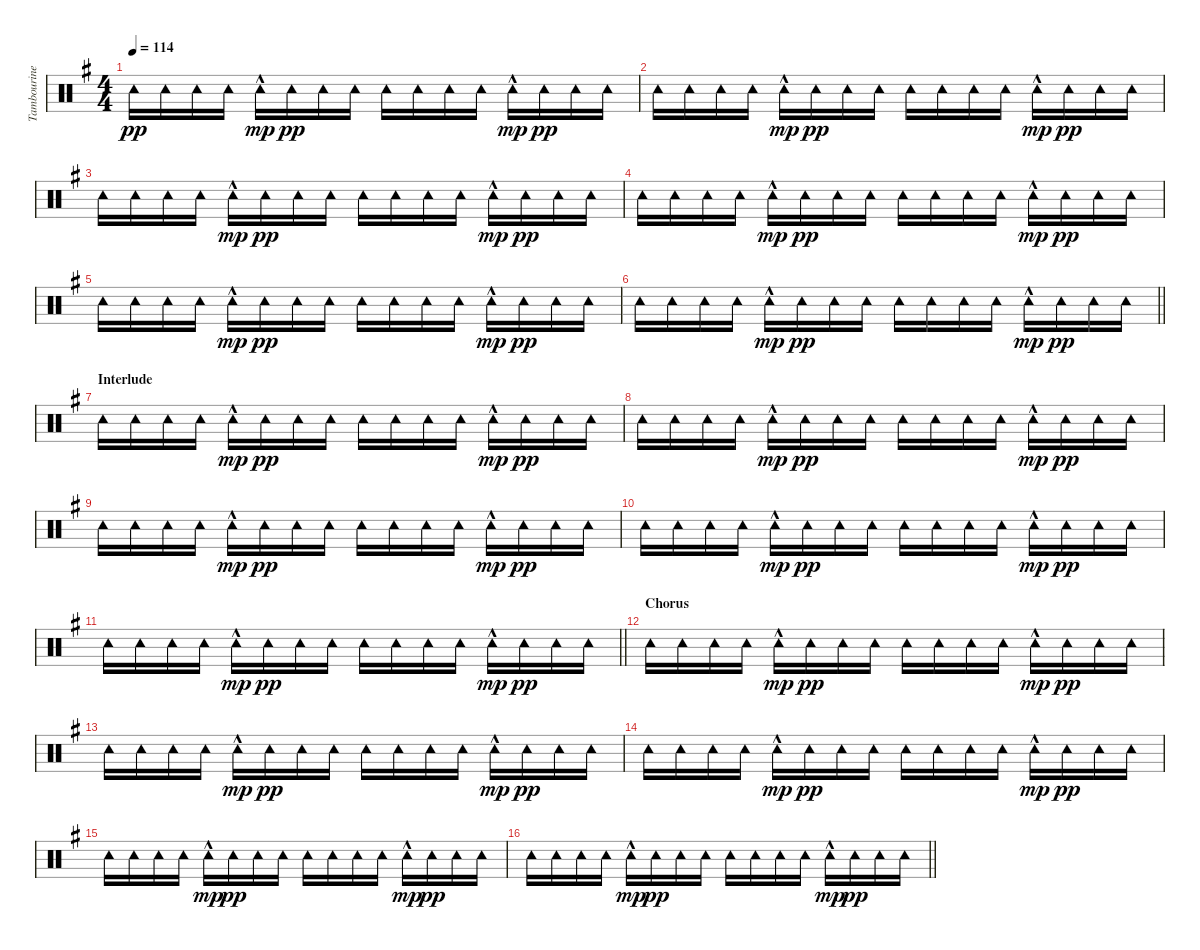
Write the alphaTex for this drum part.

\track ("Tambourine" "Tambourine") {instrument percussion}
\staff {score}
\articulation defaults
\ts (4 4)
\tempo 114
\clef neutral
\ks g "Tambourine (hit)".16{dy pp} "Tambourine (hit)".16 "Tambourine (hit)".16 "Tambourine (hit)".16 "Tambourine (hit)"{hac}.16{dy mp} "Tambourine (hit)".16{dy pp} "Tambourine (hit)".16 "Tambourine (hit)".16 "Tambourine (hit)".16 "Tambourine (hit)".16 "Tambourine (hit)".16 "Tambourine (hit)".16 "Tambourine (hit)"{hac}.16{dy mp} "Tambourine (hit)".16{dy pp} "Tambourine (hit)".16 "Tambourine (hit)".16
|
"Tambourine (hit)".16 "Tambourine (hit)".16 "Tambourine (hit)".16 "Tambourine (hit)".16 "Tambourine (hit)"{hac}.16{dy mp} "Tambourine (hit)".16{dy pp} "Tambourine (hit)".16 "Tambourine (hit)".16 "Tambourine (hit)".16 "Tambourine (hit)".16 "Tambourine (hit)".16 "Tambourine (hit)".16 "Tambourine (hit)"{hac}.16{dy mp} "Tambourine (hit)".16{dy pp} "Tambourine (hit)".16 "Tambourine (hit)".16 |
"Tambourine (hit)".16 "Tambourine (hit)".16 "Tambourine (hit)".16 "Tambourine (hit)".16 "Tambourine (hit)"{hac}.16{dy mp} "Tambourine (hit)".16{dy pp} "Tambourine (hit)".16 "Tambourine (hit)".16 "Tambourine (hit)".16 "Tambourine (hit)".16 "Tambourine (hit)".16 "Tambourine (hit)".16 "Tambourine (hit)"{hac}.16{dy mp} "Tambourine (hit)".16{dy pp} "Tambourine (hit)".16 "Tambourine (hit)".16 |
"Tambourine (hit)".16 "Tambourine (hit)".16 "Tambourine (hit)".16 "Tambourine (hit)".16 "Tambourine (hit)"{hac}.16{dy mp} "Tambourine (hit)".16{dy pp} "Tambourine (hit)".16 "Tambourine (hit)".16 "Tambourine (hit)".16 "Tambourine (hit)".16 "Tambourine (hit)".16 "Tambourine (hit)".16 "Tambourine (hit)"{hac}.16{dy mp} "Tambourine (hit)".16{dy pp} "Tambourine (hit)".16 "Tambourine (hit)".16 |
"Tambourine (hit)".16 "Tambourine (hit)".16 "Tambourine (hit)".16 "Tambourine (hit)".16 "Tambourine (hit)"{hac}.16{dy mp} "Tambourine (hit)".16{dy pp} "Tambourine (hit)".16 "Tambourine (hit)".16 "Tambourine (hit)".16 "Tambourine (hit)".16 "Tambourine (hit)".16 "Tambourine (hit)".16 "Tambourine (hit)"{hac}.16{dy mp} "Tambourine (hit)".16{dy pp} "Tambourine (hit)".16 "Tambourine (hit)".16 |
\barLineRight lightlight "Tambourine (hit)".16 "Tambourine (hit)".16 "Tambourine (hit)".16 "Tambourine (hit)".16 "Tambourine (hit)"{hac}.16{dy mp} "Tambourine (hit)".16{dy pp} "Tambourine (hit)".16 "Tambourine (hit)".16 "Tambourine (hit)".16 "Tambourine (hit)".16 "Tambourine (hit)".16 "Tambourine (hit)".16 "Tambourine (hit)"{hac}.16{dy mp} "Tambourine (hit)".16{dy pp} "Tambourine (hit)".16 "Tambourine (hit)".16
|
\section ("" "Interlude")
"Tambourine (hit)".16 "Tambourine (hit)".16 "Tambourine (hit)".16 "Tambourine (hit)".16 "Tambourine (hit)"{hac}.16{dy mp} "Tambourine (hit)".16{dy pp} "Tambourine (hit)".16 "Tambourine (hit)".16 "Tambourine (hit)".16 "Tambourine (hit)".16 "Tambourine (hit)".16 "Tambourine (hit)".16 "Tambourine (hit)"{hac}.16{dy mp} "Tambourine (hit)".16{dy pp} "Tambourine (hit)".16 "Tambourine (hit)".16 |
"Tambourine (hit)".16 "Tambourine (hit)".16 "Tambourine (hit)".16 "Tambourine (hit)".16 "Tambourine (hit)"{hac}.16{dy mp} "Tambourine (hit)".16{dy pp} "Tambourine (hit)".16 "Tambourine (hit)".16 "Tambourine (hit)".16 "Tambourine (hit)".16 "Tambourine (hit)".16 "Tambourine (hit)".16 "Tambourine (hit)"{hac}.16{dy mp} "Tambourine (hit)".16{dy pp} "Tambourine (hit)".16 "Tambourine (hit)".16 |
"Tambourine (hit)".16 "Tambourine (hit)".16 "Tambourine (hit)".16 "Tambourine (hit)".16 "Tambourine (hit)"{hac}.16{dy mp} "Tambourine (hit)".16{dy pp} "Tambourine (hit)".16 "Tambourine (hit)".16 "Tambourine (hit)".16 "Tambourine (hit)".16 "Tambourine (hit)".16 "Tambourine (hit)".16 "Tambourine (hit)"{hac}.16{dy mp} "Tambourine (hit)".16{dy pp} "Tambourine (hit)".16 "Tambourine (hit)".16 |
"Tambourine (hit)".16 "Tambourine (hit)".16 "Tambourine (hit)".16 "Tambourine (hit)".16 "Tambourine (hit)"{hac}.16{dy mp} "Tambourine (hit)".16{dy pp} "Tambourine (hit)".16 "Tambourine (hit)".16 "Tambourine (hit)".16 "Tambourine (hit)".16 "Tambourine (hit)".16 "Tambourine (hit)".16 "Tambourine (hit)"{hac}.16{dy mp} "Tambourine (hit)".16{dy pp} "Tambourine (hit)".16 "Tambourine (hit)".16 |
\barLineRight lightlight "Tambourine (hit)".16 "Tambourine (hit)".16 "Tambourine (hit)".16 "Tambourine (hit)".16 "Tambourine (hit)"{hac}.16{dy mp} "Tambourine (hit)".16{dy pp} "Tambourine (hit)".16 "Tambourine (hit)".16 "Tambourine (hit)".16 "Tambourine (hit)".16 "Tambourine (hit)".16 "Tambourine (hit)".16 "Tambourine (hit)"{hac}.16{dy mp} "Tambourine (hit)".16{dy pp} "Tambourine (hit)".16 "Tambourine (hit)".16
|
\section ("" "Chorus")
"Tambourine (hit)".16 "Tambourine (hit)".16 "Tambourine (hit)".16 "Tambourine (hit)".16 "Tambourine (hit)"{hac}.16{dy mp} "Tambourine (hit)".16{dy pp} "Tambourine (hit)".16 "Tambourine (hit)".16 "Tambourine (hit)".16 "Tambourine (hit)".16 "Tambourine (hit)".16 "Tambourine (hit)".16 "Tambourine (hit)"{hac}.16{dy mp} "Tambourine (hit)".16{dy pp} "Tambourine (hit)".16 "Tambourine (hit)".16 |
"Tambourine (hit)".16 "Tambourine (hit)".16 "Tambourine (hit)".16 "Tambourine (hit)".16 "Tambourine (hit)"{hac}.16{dy mp} "Tambourine (hit)".16{dy pp} "Tambourine (hit)".16 "Tambourine (hit)".16 "Tambourine (hit)".16 "Tambourine (hit)".16 "Tambourine (hit)".16 "Tambourine (hit)".16 "Tambourine (hit)"{hac}.16{dy mp} "Tambourine (hit)".16{dy pp} "Tambourine (hit)".16 "Tambourine (hit)".16 |
"Tambourine (hit)".16 "Tambourine (hit)".16 "Tambourine (hit)".16 "Tambourine (hit)".16 "Tambourine (hit)"{hac}.16{dy mp} "Tambourine (hit)".16{dy pp} "Tambourine (hit)".16 "Tambourine (hit)".16 "Tambourine (hit)".16 "Tambourine (hit)".16 "Tambourine (hit)".16 "Tambourine (hit)".16 "Tambourine (hit)"{hac}.16{dy mp} "Tambourine (hit)".16{dy pp} "Tambourine (hit)".16 "Tambourine (hit)".16 |
"Tambourine (hit)".16 "Tambourine (hit)".16 "Tambourine (hit)".16 "Tambourine (hit)".16 "Tambourine (hit)"{hac}.16{dy mp} "Tambourine (hit)".16{dy pp} "Tambourine (hit)".16 "Tambourine (hit)".16 "Tambourine (hit)".16 "Tambourine (hit)".16 "Tambourine (hit)".16 "Tambourine (hit)".16 "Tambourine (hit)"{hac}.16{dy mp} "Tambourine (hit)".16{dy pp} "Tambourine (hit)".16 "Tambourine (hit)".16 |
\barLineRight lightlight "Tambourine (hit)".16 "Tambourine (hit)".16 "Tambourine (hit)".16 "Tambourine (hit)".16 "Tambourine (hit)"{hac}.16{dy mp} "Tambourine (hit)".16{dy pp} "Tambourine (hit)".16 "Tambourine (hit)".16 "Tambourine (hit)".16 "Tambourine (hit)".16 "Tambourine (hit)".16 "Tambourine (hit)".16 "Tambourine (hit)"{hac}.16{dy mp} "Tambourine (hit)".16{dy pp} "Tambourine (hit)".16 "Tambourine (hit)".16
